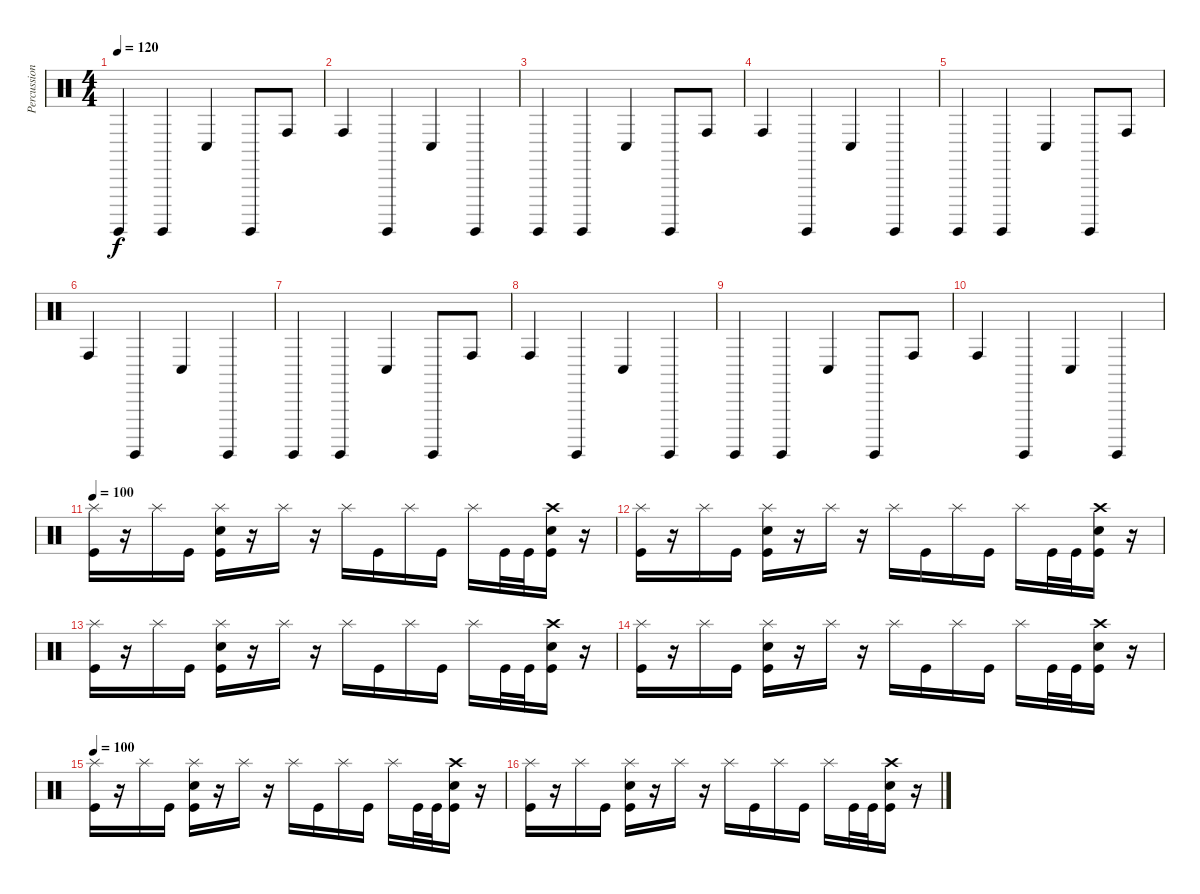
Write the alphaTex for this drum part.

\track ("Percussion" "Percussion") {instrument percussion}
\staff {score}
\articulation defaults
\ts (4 4)
\tempo 120
\clef neutral
\ks c "Surdo (hit)".4{dy f} "Surdo (hit)".4 "Conga low (hit)".4 "Surdo (hit)".8 "Conga high (hit)".8
|
"Conga high (hit)".4 "Surdo (hit)".4 "Conga low (hit)".4 "Surdo (hit)".4 |
"Surdo (hit)".4 "Surdo (hit)".4 "Conga low (hit)".4 "Surdo (hit)".8 "Conga high (hit)".8 |
"Conga high (hit)".4 "Surdo (hit)".4 "Conga low (hit)".4 "Surdo (hit)".4 |
"Surdo (hit)".4{volume 8} "Surdo (hit)".4 "Conga low (hit)".4 "Surdo (hit)".8 "Conga high (hit)".8 |
"Conga high (hit)".4 "Surdo (hit)".4 "Conga low (hit)".4 "Surdo (hit)".4 |
"Surdo (hit)".4 "Surdo (hit)".4 "Conga low (hit)".4 "Surdo (hit)".8 "Conga high (hit)".8 |
"Conga high (hit)".4 "Surdo (hit)".4 "Conga low (hit)".4 "Surdo (hit)".4 |
"Surdo (hit)".4{volume 6} "Surdo (hit)".4 "Conga low (hit)".4 "Surdo (hit)".8 "Conga high (hit)".8 |
"Conga high (hit)".4 "Surdo (hit)".4 "Conga low (hit)".4 "Surdo (hit)".4 |
\tempo 100
("Splash (hit)" "Kick (hit)").16{volume 16} r.16 "Splash (hit)".16 "Kick (hit)".16 ("Splash (hit)" "Electric Snare (hit)" "Kick (hit)").16 r.16 "Splash (hit)".16 r.16 "Splash (hit)".16 "Kick (hit)".16 "Splash (hit)".16 "Kick (hit)".16 "Splash (hit)".16 "Kick (hit)".32 "Kick (hit)".32 ("Crash high (hit)" "Electric Snare (hit)" "Kick (hit)").16 r.16 |
("Splash (hit)" "Kick (hit)").16{volume 16} r.16 "Splash (hit)".16 "Kick (hit)".16 ("Splash (hit)" "Electric Snare (hit)" "Kick (hit)").16 r.16 "Splash (hit)".16 r.16 "Splash (hit)".16 "Kick (hit)".16 "Splash (hit)".16 "Kick (hit)".16 "Splash (hit)".16 "Kick (hit)".32 "Kick (hit)".32 ("Crash high (hit)" "Electric Snare (hit)" "Kick (hit)").16 r.16 |
("Splash (hit)" "Kick (hit)").16{volume 16} r.16 "Splash (hit)".16 "Kick (hit)".16 ("Splash (hit)" "Electric Snare (hit)" "Kick (hit)").16 r.16 "Splash (hit)".16 r.16 "Splash (hit)".16 "Kick (hit)".16 "Splash (hit)".16 "Kick (hit)".16 "Splash (hit)".16 "Kick (hit)".32 "Kick (hit)".32 ("Crash high (hit)" "Electric Snare (hit)" "Kick (hit)").16 r.16 |
("Splash (hit)" "Kick (hit)").16{volume 16} r.16 "Splash (hit)".16 "Kick (hit)".16 ("Splash (hit)" "Electric Snare (hit)" "Kick (hit)").16 r.16 "Splash (hit)".16 r.16 "Splash (hit)".16 "Kick (hit)".16 "Splash (hit)".16 "Kick (hit)".16 "Splash (hit)".16 "Kick (hit)".32 "Kick (hit)".32 ("Crash high (hit)" "Electric Snare (hit)" "Kick (hit)").16 r.16 |
\tempo 100
("Splash (hit)" "Kick (hit)").16{volume 16} r.16 "Splash (hit)".16 "Kick (hit)".16 ("Splash (hit)" "Electric Snare (hit)" "Kick (hit)").16 r.16 "Splash (hit)".16 r.16 "Splash (hit)".16 "Kick (hit)".16 "Splash (hit)".16 "Kick (hit)".16 "Splash (hit)".16 "Kick (hit)".32 "Kick (hit)".32 ("Crash high (hit)" "Electric Snare (hit)" "Kick (hit)").16 r.16 |
("Splash (hit)" "Kick (hit)").16{volume 16} r.16 "Splash (hit)".16 "Kick (hit)".16 ("Splash (hit)" "Electric Snare (hit)" "Kick (hit)").16 r.16 "Splash (hit)".16 r.16 "Splash (hit)".16 "Kick (hit)".16 "Splash (hit)".16 "Kick (hit)".16 "Splash (hit)".16 "Kick (hit)".32 "Kick (hit)".32 ("Crash high (hit)" "Electric Snare (hit)" "Kick (hit)").16 r.16
